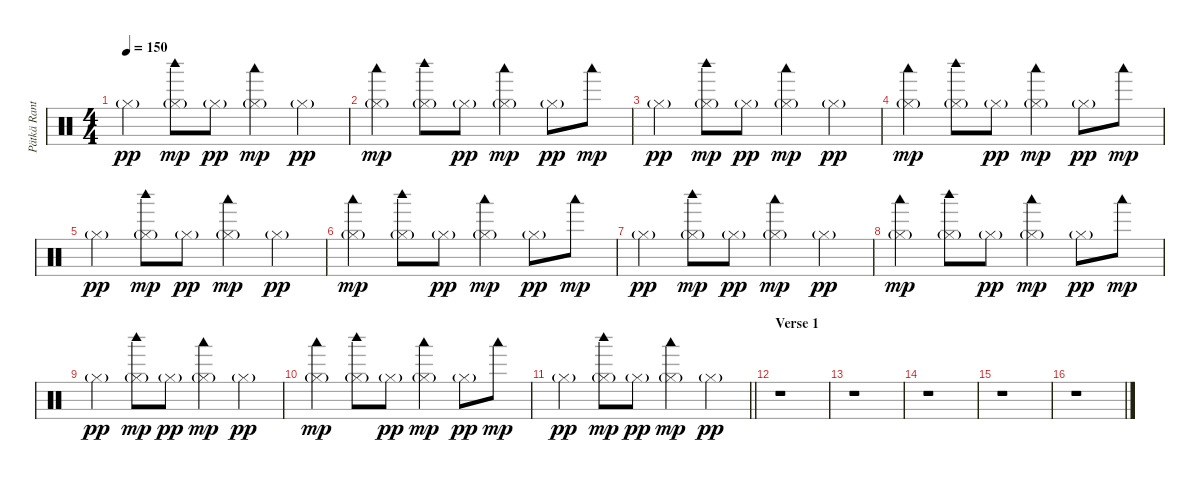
\track ("Pätkä Rantala (Drums)" "Pätkä Rant") {instrument percussion}
\staff {score}
\articulation defaults
\ts (4 4)
\tempo 150
\clef neutral
\ks c "Hi-Hat (closed)"{g}.4{dy pp}
("Hi-Hat (closed)"{g} "Woodblock high (hit)").8{dy mp} "Hi-Hat (closed)"{g}.8{dy pp} ("Hi-Hat (closed)"{g} "Woodblock low (hit)").4{dy mp} "Hi-Hat (closed)"{g}.4{dy pp} |
("Hi-Hat (closed)"{g} "Woodblock low (hit)").4{dy mp} ("Hi-Hat (closed)"{g} "Woodblock high (hit)").8 "Hi-Hat (closed)"{g}.8{dy pp} ("Hi-Hat (closed)"{g} "Woodblock low (hit)").4{dy mp} "Hi-Hat (closed)"{g}.8{dy pp} "Woodblock low (hit)".8{dy mp} |
"Hi-Hat (closed)"{g}.4{dy pp} ("Hi-Hat (closed)"{g} "Woodblock high (hit)").8{dy mp} "Hi-Hat (closed)"{g}.8{dy pp} ("Hi-Hat (closed)"{g} "Woodblock low (hit)").4{dy mp} "Hi-Hat (closed)"{g}.4{dy pp} |
("Hi-Hat (closed)"{g} "Woodblock low (hit)").4{dy mp} ("Hi-Hat (closed)"{g} "Woodblock high (hit)").8 "Hi-Hat (closed)"{g}.8{dy pp} ("Hi-Hat (closed)"{g} "Woodblock low (hit)").4{dy mp} "Hi-Hat (closed)"{g}.8{dy pp} "Woodblock low (hit)".8{dy mp} |
"Hi-Hat (closed)"{g}.4{dy pp} ("Hi-Hat (closed)"{g} "Woodblock high (hit)").8{dy mp} "Hi-Hat (closed)"{g}.8{dy pp} ("Hi-Hat (closed)"{g} "Woodblock low (hit)").4{dy mp} "Hi-Hat (closed)"{g}.4{dy pp} |
("Hi-Hat (closed)"{g} "Woodblock low (hit)").4{dy mp} ("Hi-Hat (closed)"{g} "Woodblock high (hit)").8 "Hi-Hat (closed)"{g}.8{dy pp} ("Hi-Hat (closed)"{g} "Woodblock low (hit)").4{dy mp} "Hi-Hat (closed)"{g}.8{dy pp} "Woodblock low (hit)".8{dy mp} |
"Hi-Hat (closed)"{g}.4{dy pp} ("Hi-Hat (closed)"{g} "Woodblock high (hit)").8{dy mp} "Hi-Hat (closed)"{g}.8{dy pp} ("Hi-Hat (closed)"{g} "Woodblock low (hit)").4{dy mp} "Hi-Hat (closed)"{g}.4{dy pp} |
("Hi-Hat (closed)"{g} "Woodblock low (hit)").4{dy mp} ("Hi-Hat (closed)"{g} "Woodblock high (hit)").8 "Hi-Hat (closed)"{g}.8{dy pp} ("Hi-Hat (closed)"{g} "Woodblock low (hit)").4{dy mp} "Hi-Hat (closed)"{g}.8{dy pp} "Woodblock low (hit)".8{dy mp} |
"Hi-Hat (closed)"{g}.4{dy pp} ("Hi-Hat (closed)"{g} "Woodblock high (hit)").8{dy mp} "Hi-Hat (closed)"{g}.8{dy pp} ("Hi-Hat (closed)"{g} "Woodblock low (hit)").4{dy mp} "Hi-Hat (closed)"{g}.4{dy pp} |
("Hi-Hat (closed)"{g} "Woodblock low (hit)").4{dy mp} ("Hi-Hat (closed)"{g} "Woodblock high (hit)").8 "Hi-Hat (closed)"{g}.8{dy pp} ("Hi-Hat (closed)"{g} "Woodblock low (hit)").4{dy mp} "Hi-Hat (closed)"{g}.8{dy pp} "Woodblock low (hit)".8{dy mp} |
\barLineRight lightlight "Hi-Hat (closed)"{g}.4{dy pp}
("Hi-Hat (closed)"{g} "Woodblock high (hit)").8{dy mp} "Hi-Hat (closed)"{g}.8{dy pp} ("Hi-Hat (closed)"{g} "Woodblock low (hit)").4{dy mp} "Hi-Hat (closed)"{g}.4{dy pp} |
\section ("" "Verse 1")
r.1 |
r.1 |
r.1 |
r.1 |
r.1
